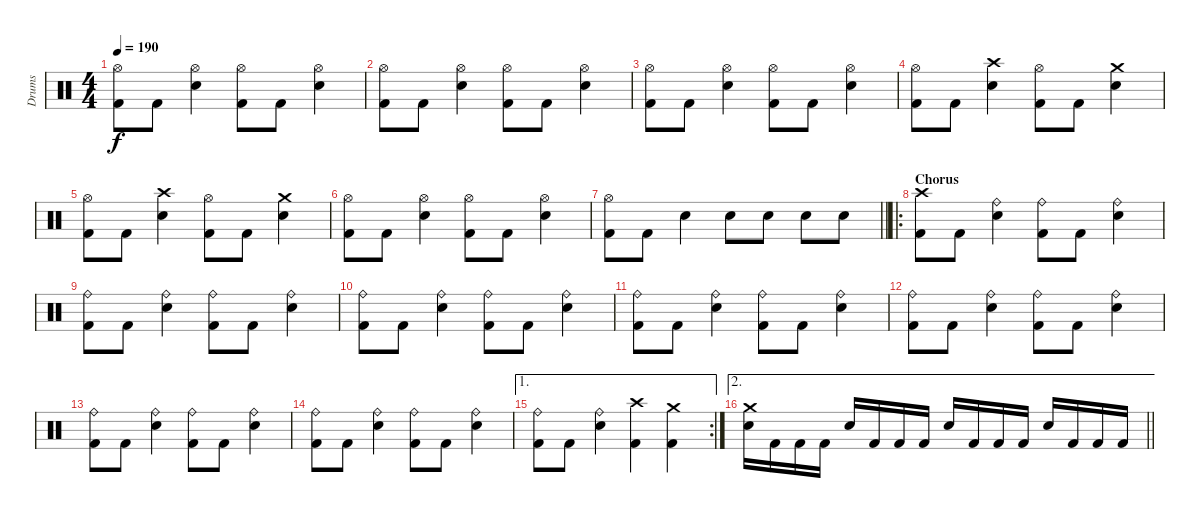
\track ("Drums" "Drums") {instrument percussion}
\staff {score}
\articulation defaults
\ts (4 4)
\tempo 190
\clef neutral
\ks c
("Hi-Hat (open)" "Kick (hit) 2").8{dy f} "Kick (hit) 2".8 ("Hi-Hat (open)" "Snare (hit) 2").4 ("Hi-Hat (open)" "Kick (hit) 2").8 "Kick (hit) 2".8 ("Hi-Hat (open)" "Snare (hit) 2").4 |
("Hi-Hat (open)" "Kick (hit) 2").8 "Kick (hit) 2".8 ("Hi-Hat (open)" "Snare (hit) 2").4 ("Hi-Hat (open)" "Kick (hit) 2").8 "Kick (hit) 2".8 ("Hi-Hat (open)" "Snare (hit) 2").4 |
("Hi-Hat (open)" "Kick (hit) 2").8 "Kick (hit) 2".8 ("Hi-Hat (open)" "Snare (hit) 2").4 ("Hi-Hat (open)" "Kick (hit) 2").8 "Kick (hit) 2".8 ("Hi-Hat (open)" "Snare (hit) 2").4 |
("Hi-Hat (open)" "Kick (hit) 2").8 "Kick (hit) 2".8 ("Crash high (hit)" "Snare (hit) 2").4 ("Hi-Hat (open)" "Kick (hit) 2").8 "Kick (hit) 2".8 ("Crash medium (hit)" "Snare (hit) 2").4 |
("Hi-Hat (open)" "Kick (hit) 2").8 "Kick (hit) 2".8 ("Crash high (hit)" "Snare (hit) 2").4 ("Hi-Hat (open)" "Kick (hit) 2").8 "Kick (hit) 2".8 ("Crash medium (hit)" "Snare (hit) 2").4 |
("Hi-Hat (open)" "Kick (hit) 2").8 "Kick (hit) 2".8 ("Hi-Hat (open)" "Snare (hit) 2").4 ("Hi-Hat (open)" "Kick (hit) 2").8 "Kick (hit) 2".8 ("Hi-Hat (open)" "Snare (hit) 2").4 |
\barLineRight lightlight
("Hi-Hat (open)" "Kick (hit) 2").8 "Kick (hit) 2".8 "Snare (hit) 2".4 "Snare (hit) 2".8 "Snare (hit) 2".8 "Snare (hit) 2".8 "Snare (hit) 2".8 |
\ro
\section ("" "Chorus")
("Crash high (hit)" "Kick (hit) 2").8 "Kick (hit) 2".8 ("Ride (bell)" "Snare (hit) 2").4 ("Ride (bell)" "Kick (hit) 2").8 "Kick (hit) 2".8 ("Ride (bell)" "Snare (hit) 2").4 |
("Ride (bell)" "Kick (hit) 2").8 "Kick (hit) 2".8 ("Ride (bell)" "Snare (hit) 2").4 ("Ride (bell)" "Kick (hit) 2").8 "Kick (hit) 2".8 ("Ride (bell)" "Snare (hit) 2").4 |
("Ride (bell)" "Kick (hit) 2").8 "Kick (hit) 2".8 ("Ride (bell)" "Snare (hit) 2").4 ("Ride (bell)" "Kick (hit) 2").8 "Kick (hit) 2".8 ("Ride (bell)" "Snare (hit) 2").4 |
("Ride (bell)" "Kick (hit) 2").8 "Kick (hit) 2".8 ("Ride (bell)" "Snare (hit) 2").4 ("Ride (bell)" "Kick (hit) 2").8 "Kick (hit) 2".8 ("Ride (bell)" "Snare (hit) 2").4 |
("Ride (bell)" "Kick (hit) 2").8 "Kick (hit) 2".8 ("Ride (bell)" "Snare (hit) 2").4 ("Ride (bell)" "Kick (hit) 2").8 "Kick (hit) 2".8 ("Ride (bell)" "Snare (hit) 2").4 |
("Ride (bell)" "Kick (hit) 2").8 "Kick (hit) 2".8 ("Ride (bell)" "Snare (hit) 2").4 ("Ride (bell)" "Kick (hit) 2").8 "Kick (hit) 2".8 ("Ride (bell)" "Snare (hit) 2").4 |
("Ride (bell)" "Kick (hit) 2").8 "Kick (hit) 2".8 ("Ride (bell)" "Snare (hit) 2").4 ("Ride (bell)" "Kick (hit) 2").8 "Kick (hit) 2".8 ("Ride (bell)" "Snare (hit) 2").4 |
\ae 1
\rc 2
("Ride (bell)" "Kick (hit) 2").8 "Kick (hit) 2".8 ("Ride (bell)" "Snare (hit) 2").4 ("Crash high (hit)" "Kick (hit) 2").4 ("Crash medium (hit)" "Kick (hit) 2").4 |
\ae 2
\barLineRight lightlight
("Crash medium (hit)" "Snare (hit) 2").16 "Kick (hit) 2".16 "Kick (hit) 2".16 "Kick (hit) 2".16 "Snare (hit) 2".16 "Kick (hit) 2".16 "Kick (hit) 2".16 "Kick (hit) 2".16 "Snare (hit) 2".16 "Kick (hit) 2".16 "Kick (hit) 2".16 "Kick (hit) 2".16 "Snare (hit) 2".16 "Kick (hit) 2".16 "Kick (hit) 2".16 "Kick (hit) 2".16
